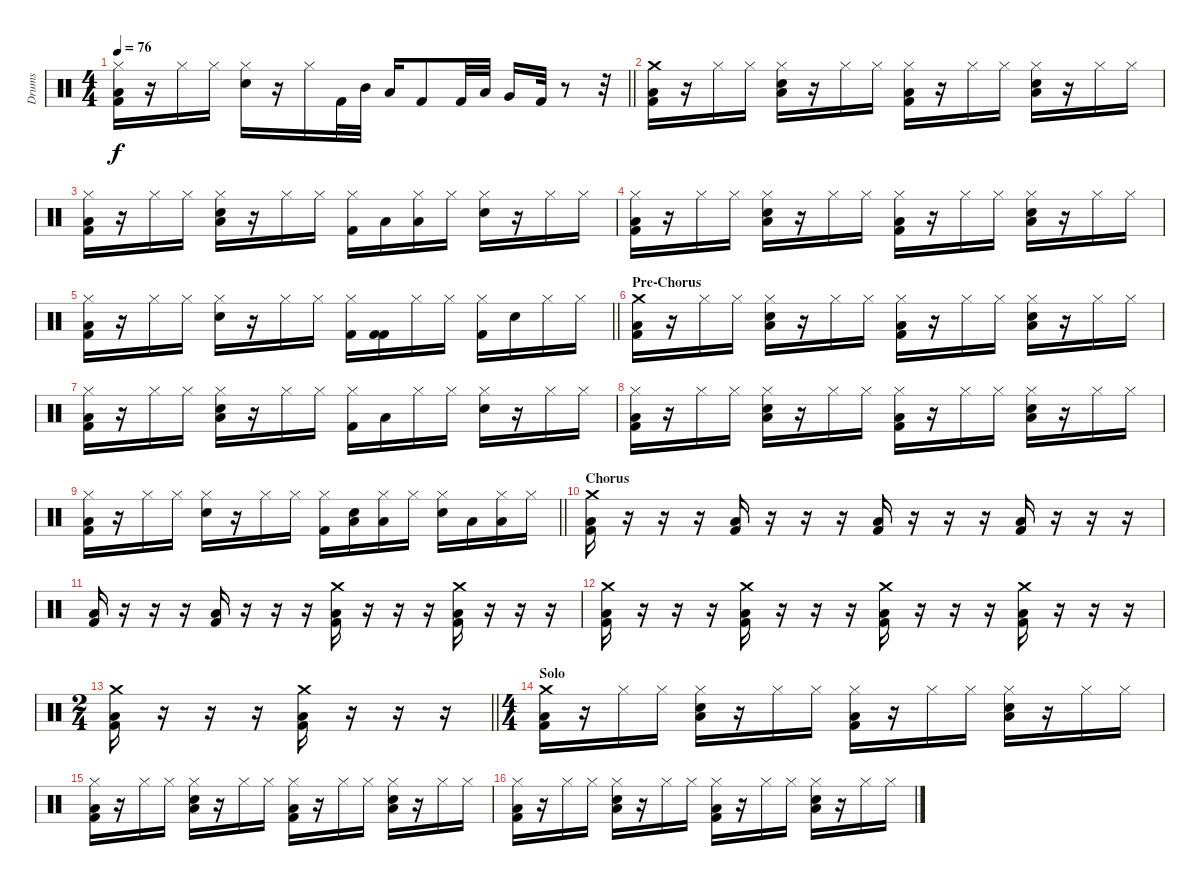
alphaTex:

\track ("Drums" "Drums") {instrument percussion}
\staff {score}
\articulation defaults
\ts (4 4)
\tempo 76
\clef neutral
\barLineRight lightlight
\ks c
("Hi-Hat (closed)" "Kick (hit) 2" "Low Floor Tom (hit)").16{dy f} r.16 "Hi-Hat (closed)".16 "Hi-Hat (closed)".16 ("Hi-Hat (closed)" "Snare (hit) 2").16 r.16 "Hi-Hat (closed)".16 "Kick (hit) 2".32 "Mid Tom (hit)".32 "Low Tom (hit)".16 "Kick (hit) 2".8 "Kick (hit) 2".32 "Low Tom (hit)".32 "Very Low Tom (hit)".16 "Kick (hit) 2".32 r.8 r.32 |
("Crash medium (hit)" "Kick (hit) 2" "Low Floor Tom (hit)").16 r.16 "Hi-Hat (closed)".16 "Hi-Hat (closed)".16 ("Hi-Hat (closed)" "Snare (hit) 2" "Low Floor Tom (hit)").16 r.16 "Hi-Hat (closed)".16 "Hi-Hat (closed)".16 ("Hi-Hat (closed)" "Kick (hit) 2" "Low Floor Tom (hit)").16 r.16 "Hi-Hat (closed)".16 "Hi-Hat (closed)".16 ("Hi-Hat (closed)" "Snare (hit) 2" "Low Floor Tom (hit)").16 r.16 "Hi-Hat (closed)".16 "Hi-Hat (closed)".16 |
("Hi-Hat (closed)" "Kick (hit) 2" "Low Tom (hit)").16 r.16 "Hi-Hat (closed)".16 "Hi-Hat (closed)".16 ("Hi-Hat (closed)" "Snare (hit) 2" "Low Floor Tom (hit)").16 r.16 "Hi-Hat (closed)".16 "Hi-Hat (closed)".16 ("Hi-Hat (closed)" "Kick (hit) 2").16 "Low Tom (hit)".16 ("Hi-Hat (closed)" "Low Floor Tom (hit)").16 "Hi-Hat (closed)".16 ("Hi-Hat (closed)" "Snare (hit) 2").16 r.16 "Hi-Hat (closed)".16 "Hi-Hat (closed)".16 |
("Hi-Hat (closed)" "Kick (hit) 2" "Low Floor Tom (hit)").16 r.16 "Hi-Hat (closed)".16 "Hi-Hat (closed)".16 ("Hi-Hat (closed)" "Snare (hit) 2" "Low Floor Tom (hit)").16 r.16 "Hi-Hat (closed)".16 "Hi-Hat (closed)".16 ("Hi-Hat (closed)" "Kick (hit) 2" "Low Floor Tom (hit)").16 r.16 "Hi-Hat (closed)".16 "Hi-Hat (closed)".16 ("Hi-Hat (closed)" "Snare (hit) 2" "Low Floor Tom (hit)").16 r.16 "Hi-Hat (closed)".16 "Hi-Hat (closed)".16 |
\barLineRight lightlight
("Hi-Hat (closed)" "Kick (hit) 2" "Low Floor Tom (hit)").16 r.16 "Hi-Hat (closed)".16 "Hi-Hat (closed)".16 ("Hi-Hat (closed)" "Snare (hit) 2").16 r.16 "Hi-Hat (closed)".16 "Hi-Hat (closed)".16 ("Hi-Hat (closed)" "Kick (hit) 2").16 ("Kick (hit) 2" "Kick (hit) 2").16 "Hi-Hat (closed)".16 "Hi-Hat (closed)".16 ("Hi-Hat (closed)" "Kick (hit) 2").16 "Snare (hit) 2".16 "Hi-Hat (closed)".16 "Hi-Hat (closed)".16 |
\section ("" "Pre-Chorus")
("Crash medium (hit)" "Kick (hit) 2" "Low Floor Tom (hit)").16 r.16 "Hi-Hat (closed)".16 "Hi-Hat (closed)".16 ("Hi-Hat (closed)" "Snare (hit) 2" "Low Floor Tom (hit)").16 r.16 "Hi-Hat (closed)".16 "Hi-Hat (closed)".16 ("Hi-Hat (closed)" "Kick (hit) 2" "Low Floor Tom (hit)").16 r.16 "Hi-Hat (closed)".16 "Hi-Hat (closed)".16 ("Hi-Hat (closed)" "Snare (hit) 2" "Low Floor Tom (hit)").16 r.16 "Hi-Hat (closed)".16 "Hi-Hat (closed)".16 |
("Hi-Hat (closed)" "Kick (hit) 2" "Low Tom (hit)").16 r.16 "Hi-Hat (closed)".16 "Hi-Hat (closed)".16 ("Hi-Hat (closed)" "Snare (hit) 2" "Low Floor Tom (hit)").16 r.16 "Hi-Hat (closed)".16 "Hi-Hat (closed)".16 ("Hi-Hat (closed)" "Kick (hit) 2").16 "Low Tom (hit)".16 "Hi-Hat (closed)".16 "Hi-Hat (closed)".16 ("Hi-Hat (closed)" "Snare (hit) 2").16 r.16 "Hi-Hat (closed)".16 "Hi-Hat (closed)".16 |
("Hi-Hat (closed)" "Kick (hit) 2" "Low Floor Tom (hit)").16 r.16 "Hi-Hat (closed)".16 "Hi-Hat (closed)".16 ("Hi-Hat (closed)" "Snare (hit) 2" "Low Floor Tom (hit)").16 r.16 "Hi-Hat (closed)".16 "Hi-Hat (closed)".16 ("Hi-Hat (closed)" "Kick (hit) 2" "Low Floor Tom (hit)").16 r.16 "Hi-Hat (closed)".16 "Hi-Hat (closed)".16 ("Hi-Hat (closed)" "Snare (hit) 2" "Low Floor Tom (hit)").16 r.16 "Hi-Hat (closed)".16 "Hi-Hat (closed)".16 |
\barLineRight lightlight
("Hi-Hat (closed)" "Kick (hit) 2" "Low Floor Tom (hit)").16 r.16 "Hi-Hat (closed)".16 "Hi-Hat (closed)".16 ("Hi-Hat (closed)" "Snare (hit) 2").16 r.16 "Hi-Hat (closed)".16 "Hi-Hat (closed)".16 ("Hi-Hat (closed)" "Kick (hit) 2").16 ("Snare (hit) 2" "Low Tom (hit)").16 ("Hi-Hat (closed)" "Low Floor Tom (hit)").16 "Hi-Hat (closed)".16 ("Hi-Hat (closed)" "Snare (hit) 2").16 "Low Tom (hit)".16 ("Hi-Hat (closed)" "Low Floor Tom (hit)").16 "Hi-Hat (closed)".16 |
\section ("" "Chorus")
("Crash medium (hit)" "Kick (hit) 2" "Low Floor Tom (hit)").16 r.16 r.16 r.16 ("Kick (hit) 2" "Low Floor Tom (hit)").16 r.16 r.16 r.16 ("Kick (hit) 2" "Low Floor Tom (hit)").16 r.16 r.16 r.16 ("Kick (hit) 2" "Low Floor Tom (hit)").16 r.16 r.16 r.16 |
("Kick (hit) 2" "Low Floor Tom (hit)").16 r.16 r.16 r.16 ("Kick (hit) 2" "Low Floor Tom (hit)").16 r.16 r.16 r.16 ("Crash medium (hit)" "Kick (hit) 2" "Low Floor Tom (hit)").16 r.16 r.16 r.16 ("Crash medium (hit)" "Kick (hit) 2" "Low Floor Tom (hit)").16 r.16 r.16 r.16 |
("Crash medium (hit)" "Kick (hit) 2" "Low Floor Tom (hit)").16 r.16 r.16 r.16 ("Crash medium (hit)" "Kick (hit) 2" "Low Floor Tom (hit)").16 r.16 r.16 r.16 ("Crash medium (hit)" "Kick (hit) 2" "Low Floor Tom (hit)").16 r.16 r.16 r.16 ("Crash medium (hit)" "Kick (hit) 2" "Low Floor Tom (hit)").16 r.16 r.16 r.16 |
\ts (2 4)
\barLineRight lightlight
("Crash medium (hit)" "Kick (hit) 2" "Low Floor Tom (hit)").16 r.16 r.16 r.16 ("Crash medium (hit)" "Kick (hit) 2" "Low Floor Tom (hit)").16 r.16 r.16 r.16 |
\ts (4 4)
\section ("" "Solo")
("Crash medium (hit)" "Kick (hit) 2" "Low Floor Tom (hit)").16 r.16 "Hi-Hat (closed)".16 "Hi-Hat (closed)".16 ("Hi-Hat (closed)" "Snare (hit) 2" "Low Floor Tom (hit)").16 r.16 "Hi-Hat (closed)".16 "Hi-Hat (closed)".16 ("Hi-Hat (closed)" "Kick (hit) 2" "Low Floor Tom (hit)").16 r.16 "Hi-Hat (closed)".16 "Hi-Hat (closed)".16 ("Hi-Hat (closed)" "Snare (hit) 2" "Low Floor Tom (hit)").16 r.16 "Hi-Hat (closed)".16 "Hi-Hat (closed)".16 |
("Hi-Hat (closed)" "Kick (hit) 2" "Low Floor Tom (hit)").16 r.16 "Hi-Hat (closed)".16 "Hi-Hat (closed)".16 ("Hi-Hat (closed)" "Snare (hit) 2" "Low Floor Tom (hit)").16 r.16 "Hi-Hat (closed)".16 "Hi-Hat (closed)".16 ("Hi-Hat (closed)" "Kick (hit) 2" "Low Floor Tom (hit)").16 r.16 "Hi-Hat (closed)".16 "Hi-Hat (closed)".16 ("Hi-Hat (closed)" "Snare (hit) 2" "Low Floor Tom (hit)").16 r.16 "Hi-Hat (closed)".16 "Hi-Hat (closed)".16 |
("Hi-Hat (closed)" "Kick (hit) 2" "Low Floor Tom (hit)").16 r.16 "Hi-Hat (closed)".16 "Hi-Hat (closed)".16 ("Hi-Hat (closed)" "Snare (hit) 2" "Low Floor Tom (hit)").16 r.16 "Hi-Hat (closed)".16 "Hi-Hat (closed)".16 ("Hi-Hat (closed)" "Kick (hit) 2" "Low Floor Tom (hit)").16 r.16 "Hi-Hat (closed)".16 "Hi-Hat (closed)".16 ("Hi-Hat (closed)" "Snare (hit) 2" "Low Floor Tom (hit)").16 r.16 "Hi-Hat (closed)".16 "Hi-Hat (closed)".16
